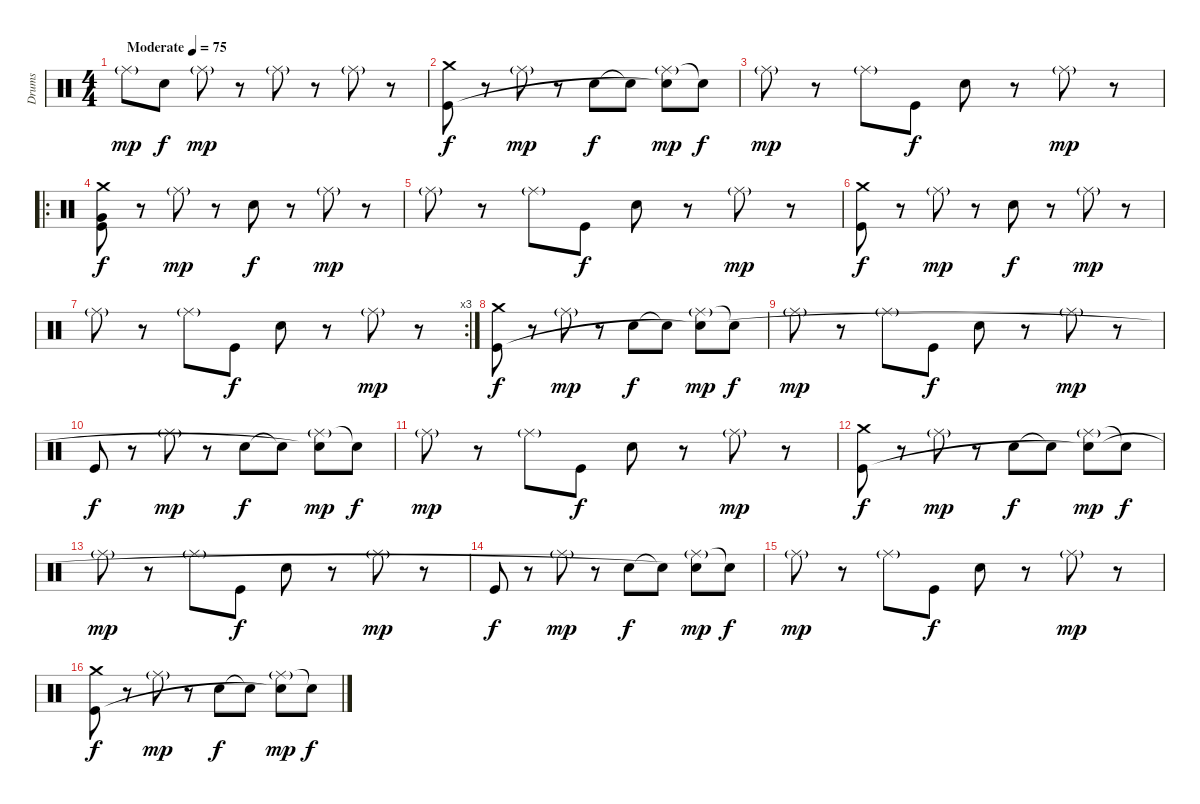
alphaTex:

\track ("Drums" "Drums") {instrument percussion}
\staff {score}
\articulation defaults
\ts (4 4)
\tempo (75 "Moderate")
\clef neutral
\ks c "Ride (middle)"{g}.8{dy mp} "Electric Snare (hit)".8{dy f volume 5} "Ride (middle)"{g}.8{dy mp volume 7}
r.8 "Ride (middle)"{g}.8 r.8 "Ride (middle)"{g}.8 r.8 |
("Crash medium (hit)" "Kick (hit)").8{dy f} r.8 "Ride (middle)"{g}.8{dy mp} r.8 "Electric Snare (hit)".8{dy f} "Electric Snare (hit)"{t}.8 ("Ride (middle)"{g} "Snare (hit)"{t}).8{dy mp} "Snare (hit)"{t}.8{dy f} |
"Ride (middle)"{g}.8{dy mp} r.8 "Ride (middle)"{g}.8 "Kick (hit)".8{dy f} "Electric Snare (hit)".8 r.8 "Ride (middle)"{g}.8{dy mp} r.8 |
\ro
("Crash medium (hit)" "Very Low Tom (hit)" "Kick (hit)").8{dy f} r.8 "Ride (middle)"{g}.8{dy mp} r.8 "Electric Snare (hit)".8{dy f} r.8 "Ride (middle)"{g}.8{dy mp} r.8 |
"Ride (middle)"{g}.8 r.8 "Ride (middle)"{g}.8 "Kick (hit)".8{dy f} "Electric Snare (hit)".8 r.8 "Ride (middle)"{g}.8{dy mp} r.8 |
("Crash medium (hit)" "Kick (hit)").8{dy f} r.8 "Ride (middle)"{g}.8{dy mp} r.8 "Electric Snare (hit)".8{dy f} r.8 "Ride (middle)"{g}.8{dy mp} r.8 |
\rc 3 "Ride (middle)"{g}.8
r.8 "Ride (middle)"{g}.8 "Kick (hit)".8{dy f} "Electric Snare (hit)".8 r.8 "Ride (middle)"{g}.8{dy mp} r.8 |
("Crash medium (hit)" "Kick (hit)").8{dy f} r.8 "Ride (middle)"{g}.8{dy mp} r.8 "Electric Snare (hit)".8{dy f} "Electric Snare (hit)"{t}.8 ("Ride (middle)"{g} "Snare (hit)"{t}).8{dy mp} "Snare (hit)"{t}.8{dy f} |
"Ride (middle)"{g}.8{dy mp} r.8 "Ride (middle)"{g}.8 "Kick (hit)".8{dy f} "Electric Snare (hit)".8 r.8 "Ride (middle)"{g}.8{dy mp} r.8 |
"Kick (hit)".8{dy f} r.8 "Ride (middle)"{g}.8{dy mp} r.8 "Electric Snare (hit)".8{dy f} "Electric Snare (hit)"{t}.8 ("Ride (middle)"{g} "Snare (hit)"{t}).8{dy mp} "Snare (hit)"{t}.8{dy f} |
"Ride (middle)"{g}.8{dy mp} r.8 "Ride (middle)"{g}.8 "Kick (hit)".8{dy f} "Electric Snare (hit)".8 r.8 "Ride (middle)"{g}.8{dy mp} r.8 |
("Crash medium (hit)" "Kick (hit)").8{dy f} r.8 "Ride (middle)"{g}.8{dy mp} r.8 "Electric Snare (hit)".8{dy f} "Electric Snare (hit)"{t}.8 ("Ride (middle)"{g} "Snare (hit)"{t}).8{dy mp} "Snare (hit)"{t}.8{dy f} |
"Ride (middle)"{g}.8{dy mp} r.8 "Ride (middle)"{g}.8 "Kick (hit)".8{dy f} "Electric Snare (hit)".8 r.8 "Ride (middle)"{g}.8{dy mp} r.8 |
"Kick (hit)".8{dy f} r.8 "Ride (middle)"{g}.8{dy mp} r.8 "Electric Snare (hit)".8{dy f} "Electric Snare (hit)"{t}.8 ("Ride (middle)"{g} "Snare (hit)"{t}).8{dy mp} "Snare (hit)"{t}.8{dy f} |
"Ride (middle)"{g}.8{dy mp} r.8 "Ride (middle)"{g}.8 "Kick (hit)".8{dy f} "Electric Snare (hit)".8 r.8 "Ride (middle)"{g}.8{dy mp} r.8 |
("Crash medium (hit)" "Kick (hit)").8{dy f} r.8 "Ride (middle)"{g}.8{dy mp} r.8 "Electric Snare (hit)".8{dy f} "Electric Snare (hit)"{t}.8 ("Ride (middle)"{g} "Snare (hit)"{t}).8{dy mp} "Snare (hit)"{t}.8{dy f}
